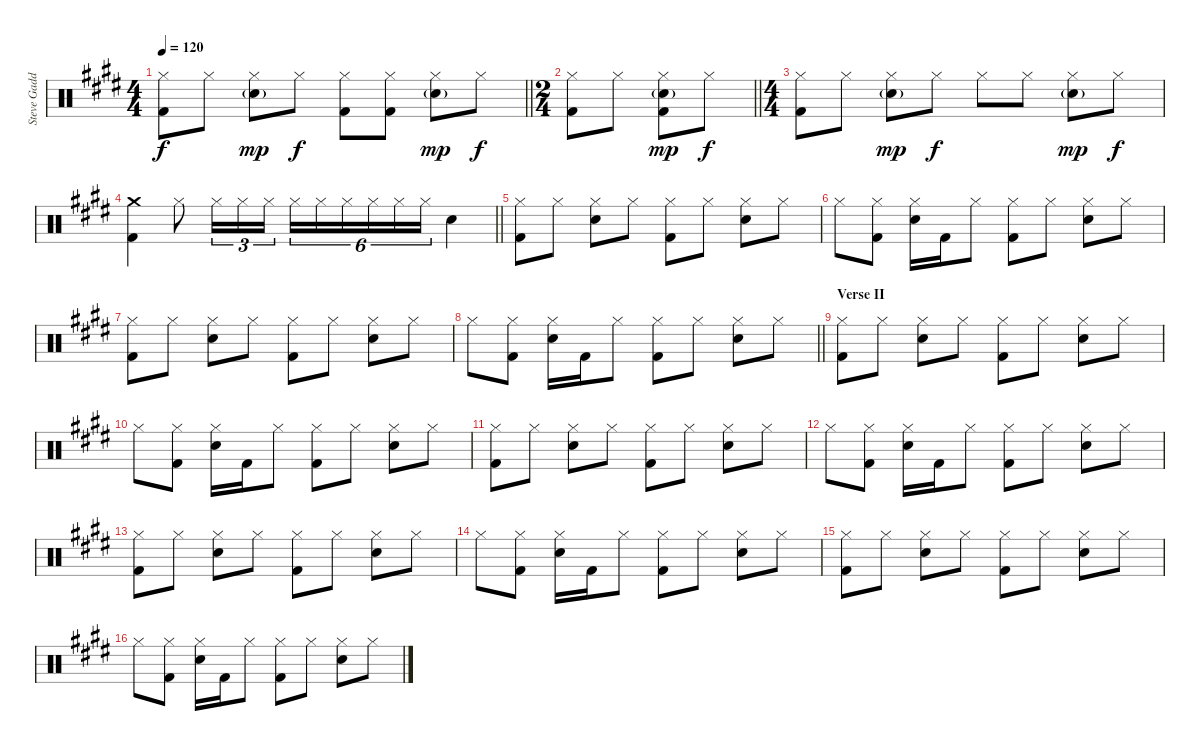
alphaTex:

\track ("Steve Gadd Drums" "Steve Gadd") {instrument percussion}
\staff {score}
\articulation defaults
\ts (4 4)
\tempo 120
\clef neutral
\barLineRight lightlight
\ks e
("Hi-Hat (closed)" "Kick (hit) 2").8{dy f} "Hi-Hat (closed)".8 ("Hi-Hat (closed)" "Snare (hit) 2"{g}).8{dy mp} "Hi-Hat (closed)".8{dy f} ("Hi-Hat (closed)" "Kick (hit) 2").8 ("Hi-Hat (closed)" "Kick (hit) 2").8 ("Hi-Hat (closed)" "Snare (hit) 2"{g}).8{dy mp} "Hi-Hat (closed)".8{dy f} |
\ts (2 4)
\barLineRight lightlight
("Hi-Hat (closed)" "Kick (hit) 2").8 "Hi-Hat (closed)".8 ("Hi-Hat (closed)" "Snare (hit) 2"{g} "Kick (hit) 2").8{dy mp} "Hi-Hat (closed)".8{dy f} |
\ts (4 4)
("Hi-Hat (closed)" "Kick (hit) 2").8 "Hi-Hat (closed)".8 ("Hi-Hat (closed)" "Snare (hit) 2"{g}).8{dy mp} "Hi-Hat (closed)".8{dy f} "Hi-Hat (closed)".8 "Hi-Hat (closed)".8 ("Hi-Hat (closed)" "Snare (hit) 2"{g}).8{dy mp} "Hi-Hat (closed)".8{dy f} |
\barLineRight lightlight
("Crash medium (hit)" "Kick (hit) 2").4 "Hi-Hat (closed)".8 "Hi-Hat (closed)".16{tu (3 2)} "Hi-Hat (closed)".16{tu (3 2)} "Hi-Hat (closed)".16{tu (3 2)} "Hi-Hat (closed)".16{tu (6 4)} "Hi-Hat (closed)".16{tu (6 4)} "Hi-Hat (closed)".16{tu (6 4)} "Hi-Hat (closed)".16{tu (6 4)} "Hi-Hat (closed)".16{tu (6 4)} "Hi-Hat (closed)".16{tu (6 4)} "Snare (hit) 2".4 |
("Hi-Hat (closed)" "Kick (hit) 2").8 "Hi-Hat (closed)".8 ("Hi-Hat (closed)" "Snare (hit) 2").8 "Hi-Hat (closed)".8 ("Hi-Hat (closed)" "Kick (hit) 2").8 "Hi-Hat (closed)".8 ("Hi-Hat (closed)" "Snare (hit) 2").8 "Hi-Hat (closed)".8 |
"Hi-Hat (closed)".8 ("Hi-Hat (closed)" "Kick (hit) 2").8 ("Hi-Hat (closed)" "Snare (hit) 2").16 "Kick (hit) 2".16 "Hi-Hat (closed)".8 ("Hi-Hat (closed)" "Kick (hit) 2").8 "Hi-Hat (closed)".8 ("Hi-Hat (closed)" "Snare (hit) 2").8 "Hi-Hat (closed)".8 |
("Hi-Hat (closed)" "Kick (hit) 2").8 "Hi-Hat (closed)".8 ("Hi-Hat (closed)" "Snare (hit) 2").8 "Hi-Hat (closed)".8 ("Hi-Hat (closed)" "Kick (hit) 2").8 "Hi-Hat (closed)".8 ("Hi-Hat (closed)" "Snare (hit) 2").8 "Hi-Hat (closed)".8 |
\barLineRight lightlight "Hi-Hat (closed)".8
("Hi-Hat (closed)" "Kick (hit) 2").8 ("Hi-Hat (closed)" "Snare (hit) 2").16 "Kick (hit) 2".16 "Hi-Hat (closed)".8 ("Hi-Hat (closed)" "Kick (hit) 2").8 "Hi-Hat (closed)".8 ("Hi-Hat (closed)" "Snare (hit) 2").8 "Hi-Hat (closed)".8 |
\section ("" "Verse II")
("Hi-Hat (closed)" "Kick (hit) 2").8 "Hi-Hat (closed)".8 ("Hi-Hat (closed)" "Snare (hit) 2").8 "Hi-Hat (closed)".8 ("Hi-Hat (closed)" "Kick (hit) 2").8 "Hi-Hat (closed)".8 ("Hi-Hat (closed)" "Snare (hit) 2").8 "Hi-Hat (closed)".8 |
"Hi-Hat (closed)".8 ("Hi-Hat (closed)" "Kick (hit) 2").8 ("Hi-Hat (closed)" "Snare (hit) 2").16 "Kick (hit) 2".16 "Hi-Hat (closed)".8 ("Hi-Hat (closed)" "Kick (hit) 2").8 "Hi-Hat (closed)".8 ("Hi-Hat (closed)" "Snare (hit) 2").8 "Hi-Hat (closed)".8 |
("Hi-Hat (closed)" "Kick (hit) 2").8 "Hi-Hat (closed)".8 ("Hi-Hat (closed)" "Snare (hit) 2").8 "Hi-Hat (closed)".8 ("Hi-Hat (closed)" "Kick (hit) 2").8 "Hi-Hat (closed)".8 ("Hi-Hat (closed)" "Snare (hit) 2").8 "Hi-Hat (closed)".8 |
"Hi-Hat (closed)".8 ("Hi-Hat (closed)" "Kick (hit) 2").8 ("Hi-Hat (closed)" "Snare (hit) 2").16 "Kick (hit) 2".16 "Hi-Hat (closed)".8 ("Hi-Hat (closed)" "Kick (hit) 2").8 "Hi-Hat (closed)".8 ("Hi-Hat (closed)" "Snare (hit) 2").8 "Hi-Hat (closed)".8 |
("Hi-Hat (closed)" "Kick (hit) 2").8 "Hi-Hat (closed)".8 ("Hi-Hat (closed)" "Snare (hit) 2").8 "Hi-Hat (closed)".8 ("Hi-Hat (closed)" "Kick (hit) 2").8 "Hi-Hat (closed)".8 ("Hi-Hat (closed)" "Snare (hit) 2").8 "Hi-Hat (closed)".8 |
"Hi-Hat (closed)".8 ("Hi-Hat (closed)" "Kick (hit) 2").8 ("Hi-Hat (closed)" "Snare (hit) 2").16 "Kick (hit) 2".16 "Hi-Hat (closed)".8 ("Hi-Hat (closed)" "Kick (hit) 2").8 "Hi-Hat (closed)".8 ("Hi-Hat (closed)" "Snare (hit) 2").8 "Hi-Hat (closed)".8 |
("Hi-Hat (closed)" "Kick (hit) 2").8 "Hi-Hat (closed)".8 ("Hi-Hat (closed)" "Snare (hit) 2").8 "Hi-Hat (closed)".8 ("Hi-Hat (closed)" "Kick (hit) 2").8 "Hi-Hat (closed)".8 ("Hi-Hat (closed)" "Snare (hit) 2").8 "Hi-Hat (closed)".8 |
"Hi-Hat (closed)".8 ("Hi-Hat (closed)" "Kick (hit) 2").8 ("Hi-Hat (closed)" "Snare (hit) 2").16 "Kick (hit) 2".16 "Hi-Hat (closed)".8 ("Hi-Hat (closed)" "Kick (hit) 2").8 "Hi-Hat (closed)".8 ("Hi-Hat (closed)" "Snare (hit) 2").8 "Hi-Hat (closed)".8
